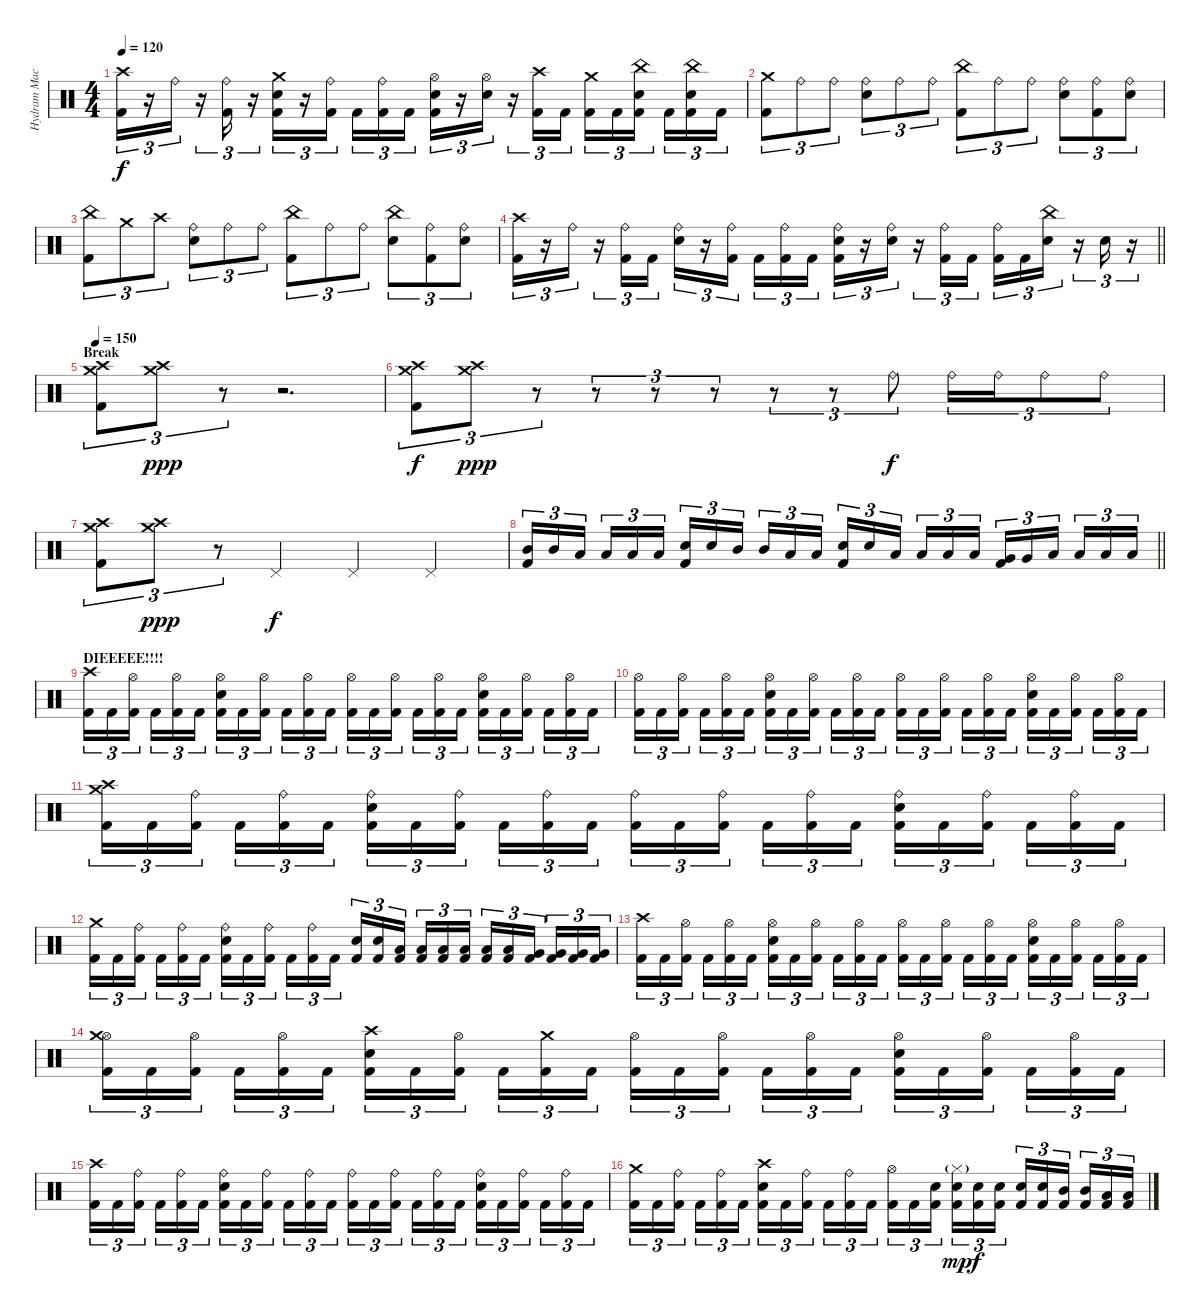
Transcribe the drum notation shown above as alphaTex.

\track ("Hydram Machine" "Hydram Mac") {instrument percussion}
\staff {score}
\articulation defaults
\ts (4 4)
\tempo 120
\clef neutral
\ks c
("Crash high (hit)" "Kick (hit) 2").16{tu (3 2) dy f} r.16{tu (3 2)} "Ride (bell)".16{tu (3 2)} r.16{tu (3 2)} ("Ride (bell)" "Kick (hit) 2").16{tu (3 2)} r.16{tu (3 2)} ("Crash medium (hit)" "Electric Snare (hit)" "Kick (hit) 2").16{tu (3 2)} r.16{tu (3 2)} ("Ride (bell)" "Kick (hit) 2").16{tu (3 2) beam splitsecondary} "Kick (hit) 2".16{tu (3 2)} ("Ride (bell)" "Kick (hit) 2").16{tu (3 2)} "Kick (hit) 2".16{tu (3 2)} ("Hi-Hat (open)" "Electric Snare (hit)" "Kick (hit) 2").16{tu (3 2)} r.16{tu (3 2)} ("Hi-Hat (open)" "Electric Snare (hit)").16{tu (3 2)} r.16{tu (3 2)} ("Crash high (hit)" "Kick (hit) 2").16{tu (3 2)} "Kick (hit) 2".16{tu (3 2)} ("Crash medium (hit)" "Kick (hit) 2").16{tu (3 2)} "Kick (hit) 2".16{tu (3 2)} ("China (hit)" "Electric Snare (hit)" "Kick (hit) 2").16{tu (3 2) beam splitsecondary} "Kick (hit) 2".16{tu (3 2)} ("China (hit)" "Electric Snare (hit)" "Kick (hit) 2").16{tu (3 2)} "Kick (hit) 2".16{tu (3 2)} |
("Crash medium (hit)" "Kick (hit) 2").8{tu (3 2)} "Ride (bell)".8{tu (3 2)} "Ride (bell)".8{tu (3 2)} ("Ride (bell)" "Electric Snare (hit)").8{tu (3 2)} "Ride (bell)".8{tu (3 2)} "Ride (bell)".8{tu (3 2)} ("China (hit)" "Kick (hit) 2").8{tu (3 2)} "Ride (bell)".8{tu (3 2)} "Ride (bell)".8{tu (3 2)} ("Ride (bell)" "Electric Snare (hit)").8{tu (3 2)} ("Ride (bell)" "Kick (hit) 2").8{tu (3 2)} ("Ride (bell)" "Electric Snare (hit)").8{tu (3 2)} |
("China (hit)" "Kick (hit) 2").8{tu (3 2)} "Crash medium (hit)".8{tu (3 2)} "Crash high (hit)".8{tu (3 2)} ("Ride (bell)" "Electric Snare (hit)").8{tu (3 2)} "Ride (bell)".8{tu (3 2)} "Ride (bell)".8{tu (3 2)} ("China (hit)" "Kick (hit) 2").8{tu (3 2)} "Ride (bell)".8{tu (3 2)} "Ride (bell)".8{tu (3 2)} ("China (hit)" "Electric Snare (hit)").8{tu (3 2)} ("Ride (bell)" "Kick (hit) 2").8{tu (3 2)} ("Ride (bell)" "Electric Snare (hit)").8{tu (3 2)} |
\barLineRight lightlight
("Crash high (hit)" "Kick (hit) 2").16{tu (3 2)} r.16{tu (3 2)} "Ride (bell)".16{tu (3 2)} r.16{tu (3 2)} ("Ride (bell)" "Kick (hit) 2").16{tu (3 2)} "Kick (hit) 2".16{tu (3 2)} ("Ride (bell)" "Electric Snare (hit)").16{tu (3 2)} r.16{tu (3 2)} ("Ride (bell)" "Kick (hit) 2").16{tu (3 2) beam splitsecondary} "Kick (hit) 2".16{tu (3 2)} ("Ride (bell)" "Kick (hit) 2").16{tu (3 2)} "Kick (hit) 2".16{tu (3 2)} ("Ride (bell)" "Electric Snare (hit)" "Kick (hit) 2").16{tu (3 2)} r.16{tu (3 2)} ("Ride (bell)" "Electric Snare (hit)").16{tu (3 2)} r.16{tu (3 2)} ("Ride (bell)" "Kick (hit) 2").16{tu (3 2)} "Kick (hit) 2".16{tu (3 2)} ("Ride (bell)" "Kick (hit) 2").16{tu (3 2)} "Kick (hit) 2".16{tu (3 2)} ("China (hit)" "Electric Snare (hit)").16{tu (3 2)} r.16{tu (3 2)} "Electric Snare (hit)".16{tu (3 2)} r.16{tu (3 2)} |
\section ("" "Break")
\tempo 150
("Crash high (hit)" "Crash medium (hit)" "Kick (hit) 2").8{tu (3 2)} ("Crash high (hit)" "Crash medium (hit)").8{tu (3 2) dy ppp} r.8{tu (3 2)} r.2{d} |
("Crash high (hit)" "Crash medium (hit)" "Kick (hit) 2").8{tu (3 2) dy f} ("Crash high (hit)" "Crash medium (hit)").8{tu (3 2) dy ppp} r.8{tu (3 2)} r.8{tu (3 2)} r.8{tu (3 2)} r.8{tu (3 2)} r.8{tu (3 2)} r.8{tu (3 2)} "Ride (bell)".8{tu (3 2) dy f} "Ride (bell)".16{tu (3 2)} "Ride (bell)".16{tu (3 2)} "Ride (bell)".8{tu (3 2)} "Ride (bell)".8{tu (3 2)} |
("Crash high (hit)" "Crash medium (hit)" "Kick (hit) 2").8{tu (3 2)} ("Crash high (hit)" "Crash medium (hit)").8{tu (3 2) dy ppp} r.8{tu (3 2)} "Pedal Hi-Hat (hit)".4{dy f} "Pedal Hi-Hat (hit)".4 "Pedal Hi-Hat (hit)".4 |
\barLineRight lightlight
("Mid Tom (hit)" "Kick (hit) 2").16{tu (3 2)} "Mid Tom (hit)".16{tu (3 2)} "Low Tom (hit)".16{tu (3 2) beam splitsecondary} "Low Tom (hit)".16{tu (3 2)} "Low Tom (hit)".16{tu (3 2)} "Low Tom (hit)".16{tu (3 2)} ("Electric Snare (hit)" "Kick (hit) 2").16{tu (3 2)} "Electric Snare (hit)".16{tu (3 2)} "Mid Tom (hit)".16{tu (3 2) beam splitsecondary} "Mid Tom (hit)".16{tu (3 2)} "Low Tom (hit)".16{tu (3 2)} "Low Tom (hit)".16{tu (3 2)} ("Electric Snare (hit)" "Kick (hit) 2").16{tu (3 2)} "Electric Snare (hit)".16{tu (3 2)} "Low Tom (hit)".16{tu (3 2) beam splitsecondary} "Low Tom (hit)".16{tu (3 2)} "Low Tom (hit)".16{tu (3 2)} "Low Tom (hit)".16{tu (3 2)} ("Very Low Tom (hit)" "Kick (hit) 2").16{tu (3 2)} "Very Low Tom (hit)".16{tu (3 2)} "Low Floor Tom (hit)".16{tu (3 2) beam splitsecondary} "Low Floor Tom (hit)".16{tu (3 2)} "Low Floor Tom (hit)".16{tu (3 2)} "Low Floor Tom (hit)".16{tu (3 2)} |
\section ("" "DIEEEEE!!!!")
("Crash high (hit)" "Kick (hit) 2").16{tu (3 2)} "Kick (hit) 2".16{tu (3 2)} ("Hi-Hat (open)" "Kick (hit) 2").16{tu (3 2) beam splitsecondary} "Kick (hit) 2".16{tu (3 2)} ("Hi-Hat (open)" "Kick (hit) 2").16{tu (3 2)} "Kick (hit) 2".16{tu (3 2)} ("Hi-Hat (open)" "Electric Snare (hit)" "Kick (hit) 2").16{tu (3 2)} "Kick (hit) 2".16{tu (3 2)} ("Hi-Hat (open)" "Kick (hit) 2").16{tu (3 2) beam splitsecondary} "Kick (hit) 2".16{tu (3 2)} ("Hi-Hat (open)" "Kick (hit) 2").16{tu (3 2)} "Kick (hit) 2".16{tu (3 2)} ("Hi-Hat (open)" "Kick (hit) 2").16{tu (3 2)} "Kick (hit) 2".16{tu (3 2)} ("Hi-Hat (open)" "Kick (hit) 2").16{tu (3 2) beam splitsecondary} "Kick (hit) 2".16{tu (3 2)} ("Hi-Hat (open)" "Kick (hit) 2").16{tu (3 2)} "Kick (hit) 2".16{tu (3 2)} ("Hi-Hat (open)" "Electric Snare (hit)" "Kick (hit) 2").16{tu (3 2)} "Kick (hit) 2".16{tu (3 2)} ("Hi-Hat (open)" "Kick (hit) 2").16{tu (3 2) beam splitsecondary} "Kick (hit) 2".16{tu (3 2)} ("Hi-Hat (open)" "Kick (hit) 2").16{tu (3 2)} "Kick (hit) 2".16{tu (3 2)} |
("Hi-Hat (open)" "Kick (hit) 2").16{tu (3 2)} "Kick (hit) 2".16{tu (3 2)} ("Hi-Hat (open)" "Kick (hit) 2").16{tu (3 2) beam splitsecondary} "Kick (hit) 2".16{tu (3 2)} ("Hi-Hat (open)" "Kick (hit) 2").16{tu (3 2)} "Kick (hit) 2".16{tu (3 2)} ("Hi-Hat (open)" "Electric Snare (hit)" "Kick (hit) 2").16{tu (3 2)} "Kick (hit) 2".16{tu (3 2)} ("Hi-Hat (open)" "Kick (hit) 2").16{tu (3 2) beam splitsecondary} "Kick (hit) 2".16{tu (3 2)} ("Hi-Hat (open)" "Kick (hit) 2").16{tu (3 2)} "Kick (hit) 2".16{tu (3 2)} ("Hi-Hat (open)" "Kick (hit) 2").16{tu (3 2)} "Kick (hit) 2".16{tu (3 2)} ("Hi-Hat (open)" "Kick (hit) 2").16{tu (3 2) beam splitsecondary} "Kick (hit) 2".16{tu (3 2)} ("Hi-Hat (open)" "Kick (hit) 2").16{tu (3 2)} "Kick (hit) 2".16{tu (3 2)} ("Hi-Hat (open)" "Electric Snare (hit)" "Kick (hit) 2").16{tu (3 2)} "Kick (hit) 2".16{tu (3 2)} ("Hi-Hat (open)" "Kick (hit) 2").16{tu (3 2) beam splitsecondary} "Kick (hit) 2".16{tu (3 2)} ("Hi-Hat (open)" "Kick (hit) 2").16{tu (3 2)} "Kick (hit) 2".16{tu (3 2)} |
("Crash high (hit)" "Crash medium (hit)" "Kick (hit) 2").16{tu (3 2)} "Kick (hit) 2".16{tu (3 2)} ("Ride (bell)" "Kick (hit) 2").16{tu (3 2) beam splitsecondary} "Kick (hit) 2".16{tu (3 2)} ("Ride (bell)" "Kick (hit) 2").16{tu (3 2)} "Kick (hit) 2".16{tu (3 2)} ("Ride (bell)" "Electric Snare (hit)" "Kick (hit) 2").16{tu (3 2)} "Kick (hit) 2".16{tu (3 2)} ("Ride (bell)" "Kick (hit) 2").16{tu (3 2) beam splitsecondary} "Kick (hit) 2".16{tu (3 2)} ("Ride (bell)" "Kick (hit) 2").16{tu (3 2)} "Kick (hit) 2".16{tu (3 2)} ("Ride (bell)" "Kick (hit) 2").16{tu (3 2)} "Kick (hit) 2".16{tu (3 2)} ("Ride (bell)" "Kick (hit) 2").16{tu (3 2) beam splitsecondary} "Kick (hit) 2".16{tu (3 2)} ("Ride (bell)" "Kick (hit) 2").16{tu (3 2)} "Kick (hit) 2".16{tu (3 2)} ("Ride (bell)" "Electric Snare (hit)" "Kick (hit) 2").16{tu (3 2)} "Kick (hit) 2".16{tu (3 2)} ("Ride (bell)" "Kick (hit) 2").16{tu (3 2) beam splitsecondary} "Kick (hit) 2".16{tu (3 2)} ("Ride (bell)" "Kick (hit) 2").16{tu (3 2)} "Kick (hit) 2".16{tu (3 2)} |
("Crash medium (hit)" "Kick (hit) 2").16{tu (3 2)} "Kick (hit) 2".16{tu (3 2)} ("Ride (bell)" "Kick (hit) 2").16{tu (3 2) beam splitsecondary} "Kick (hit) 2".16{tu (3 2)} ("Ride (bell)" "Kick (hit) 2").16{tu (3 2)} "Kick (hit) 2".16{tu (3 2)} ("Ride (bell)" "Electric Snare (hit)" "Kick (hit) 2").16{tu (3 2)} "Kick (hit) 2".16{tu (3 2)} ("Ride (bell)" "Kick (hit) 2").16{tu (3 2) beam splitsecondary} "Kick (hit) 2".16{tu (3 2)} ("Ride (bell)" "Kick (hit) 2").16{tu (3 2)} "Kick (hit) 2".16{tu (3 2)} ("Electric Snare (hit)" "Kick (hit) 2").16{tu (3 2)} ("Electric Snare (hit)" "Kick (hit) 2").16{tu (3 2)} ("Low Tom (hit)" "Kick (hit) 2").16{tu (3 2) beam splitsecondary} ("Low Tom (hit)" "Kick (hit) 2").16{tu (3 2)} ("Low Tom (hit)" "Kick (hit) 2").16{tu (3 2)} ("Low Tom (hit)" "Kick (hit) 2").16{tu (3 2)} ("Low Tom (hit)" "Kick (hit) 2").16{tu (3 2)} ("Low Tom (hit)" "Kick (hit) 2").16{tu (3 2)} ("Very Low Tom (hit)" "Kick (hit) 2").16{tu (3 2) beam splitsecondary} ("Very Low Tom (hit)" "Kick (hit) 2").16{tu (3 2)} ("Very Low Tom (hit)" "Kick (hit) 2").16{tu (3 2)} ("Very Low Tom (hit)" "Kick (hit) 2").16{tu (3 2)} |
("Crash high (hit)" "Kick (hit) 2").16{tu (3 2)} "Kick (hit) 2".16{tu (3 2)} ("Hi-Hat (open)" "Kick (hit) 2").16{tu (3 2) beam splitsecondary} "Kick (hit) 2".16{tu (3 2)} ("Hi-Hat (open)" "Kick (hit) 2").16{tu (3 2)} "Kick (hit) 2".16{tu (3 2)} ("Hi-Hat (open)" "Electric Snare (hit)" "Kick (hit) 2").16{tu (3 2)} "Kick (hit) 2".16{tu (3 2)} ("Hi-Hat (open)" "Kick (hit) 2").16{tu (3 2) beam splitsecondary} "Kick (hit) 2".16{tu (3 2)} ("Hi-Hat (open)" "Kick (hit) 2").16{tu (3 2)} "Kick (hit) 2".16{tu (3 2)} ("Hi-Hat (open)" "Kick (hit) 2").16{tu (3 2)} "Kick (hit) 2".16{tu (3 2)} ("Hi-Hat (open)" "Kick (hit) 2").16{tu (3 2) beam splitsecondary} "Kick (hit) 2".16{tu (3 2)} ("Hi-Hat (open)" "Kick (hit) 2").16{tu (3 2)} "Kick (hit) 2".16{tu (3 2)} ("Hi-Hat (open)" "Electric Snare (hit)" "Kick (hit) 2").16{tu (3 2)} "Kick (hit) 2".16{tu (3 2)} ("Hi-Hat (open)" "Kick (hit) 2").16{tu (3 2) beam splitsecondary} "Kick (hit) 2".16{tu (3 2)} ("Hi-Hat (open)" "Kick (hit) 2").16{tu (3 2)} "Kick (hit) 2".16{tu (3 2)} |
("Hi-Hat (open)" "Crash medium (hit)" "Kick (hit) 2").16{tu (3 2)} "Kick (hit) 2".16{tu (3 2)} ("Hi-Hat (open)" "Kick (hit) 2").16{tu (3 2) beam splitsecondary} "Kick (hit) 2".16{tu (3 2)} ("Hi-Hat (open)" "Kick (hit) 2").16{tu (3 2)} "Kick (hit) 2".16{tu (3 2)} ("Crash high (hit)" "Electric Snare (hit)" "Kick (hit) 2").16{tu (3 2)} "Kick (hit) 2".16{tu (3 2)} ("Hi-Hat (open)" "Kick (hit) 2").16{tu (3 2) beam splitsecondary} "Kick (hit) 2".16{tu (3 2)} ("Crash medium (hit)" "Kick (hit) 2").16{tu (3 2)} "Kick (hit) 2".16{tu (3 2)} ("Hi-Hat (open)" "Kick (hit) 2").16{tu (3 2)} "Kick (hit) 2".16{tu (3 2)} ("Hi-Hat (open)" "Kick (hit) 2").16{tu (3 2) beam splitsecondary} "Kick (hit) 2".16{tu (3 2)} ("Hi-Hat (open)" "Kick (hit) 2").16{tu (3 2)} "Kick (hit) 2".16{tu (3 2)} ("Hi-Hat (open)" "Electric Snare (hit)" "Kick (hit) 2").16{tu (3 2)} "Kick (hit) 2".16{tu (3 2)} ("Hi-Hat (open)" "Kick (hit) 2").16{tu (3 2) beam splitsecondary} "Kick (hit) 2".16{tu (3 2)} ("Hi-Hat (open)" "Kick (hit) 2").16{tu (3 2)} "Kick (hit) 2".16{tu (3 2)} |
("Crash high (hit)" "Kick (hit) 2").16{tu (3 2)} "Kick (hit) 2".16{tu (3 2)} ("Ride (bell)" "Kick (hit) 2").16{tu (3 2) beam splitsecondary} "Kick (hit) 2".16{tu (3 2)} ("Ride (bell)" "Kick (hit) 2").16{tu (3 2)} "Kick (hit) 2".16{tu (3 2)} ("Ride (bell)" "Electric Snare (hit)" "Kick (hit) 2").16{tu (3 2)} "Kick (hit) 2".16{tu (3 2)} ("Ride (bell)" "Kick (hit) 2").16{tu (3 2) beam splitsecondary} "Kick (hit) 2".16{tu (3 2)} ("Ride (bell)" "Kick (hit) 2").16{tu (3 2)} "Kick (hit) 2".16{tu (3 2)} ("Ride (bell)" "Kick (hit) 2").16{tu (3 2)} "Kick (hit) 2".16{tu (3 2)} ("Ride (bell)" "Kick (hit) 2").16{tu (3 2) beam splitsecondary} "Kick (hit) 2".16{tu (3 2)} ("Ride (bell)" "Kick (hit) 2").16{tu (3 2)} "Kick (hit) 2".16{tu (3 2)} ("Ride (bell)" "Electric Snare (hit)" "Kick (hit) 2").16{tu (3 2)} "Kick (hit) 2".16{tu (3 2)} ("Ride (bell)" "Kick (hit) 2").16{tu (3 2) beam splitsecondary} "Kick (hit) 2".16{tu (3 2)} ("Ride (bell)" "Kick (hit) 2").16{tu (3 2)} "Kick (hit) 2".16{tu (3 2)} |
("Crash medium (hit)" "Kick (hit) 2").16{tu (3 2)} "Kick (hit) 2".16{tu (3 2)} ("Ride (bell)" "Kick (hit) 2").16{tu (3 2) beam splitsecondary} "Kick (hit) 2".16{tu (3 2)} ("Ride (bell)" "Kick (hit) 2").16{tu (3 2)} "Kick (hit) 2".16{tu (3 2)} ("Crash high (hit)" "Electric Snare (hit)" "Kick (hit) 2").16{tu (3 2)} "Kick (hit) 2".16{tu (3 2)} ("Ride (bell)" "Kick (hit) 2").16{tu (3 2) beam splitsecondary} "Kick (hit) 2".16{tu (3 2)} ("Ride (bell)" "Kick (hit) 2").16{tu (3 2)} "Kick (hit) 2".16{tu (3 2)} ("Hi-Hat (open)" "Kick (hit) 2").16{tu (3 2)} "Kick (hit) 2".16{tu (3 2)} ("Electric Snare (hit)" "Kick (hit) 2").16{tu (3 2) beam splitsecondary} ("Hi-Hat (closed)"{g} "Electric Snare (hit)" "Kick (hit) 2").16{tu (3 2) dy mp} ("Electric Snare (hit)" "Kick (hit) 2").16{tu (3 2) dy f} ("Electric Snare (hit)" "Kick (hit) 2").16{tu (3 2)} ("Electric Snare (hit)" "Kick (hit) 2").16{tu (3 2)} ("Electric Snare (hit)" "Kick (hit) 2").16{tu (3 2)} ("Mid Tom (hit)" "Kick (hit) 2").16{tu (3 2) beam splitsecondary} ("Mid Tom (hit)" "Kick (hit) 2").16{tu (3 2)} ("Low Tom (hit)" "Kick (hit) 2").16{tu (3 2)} ("Low Tom (hit)" "Kick (hit) 2").16{tu (3 2)}
